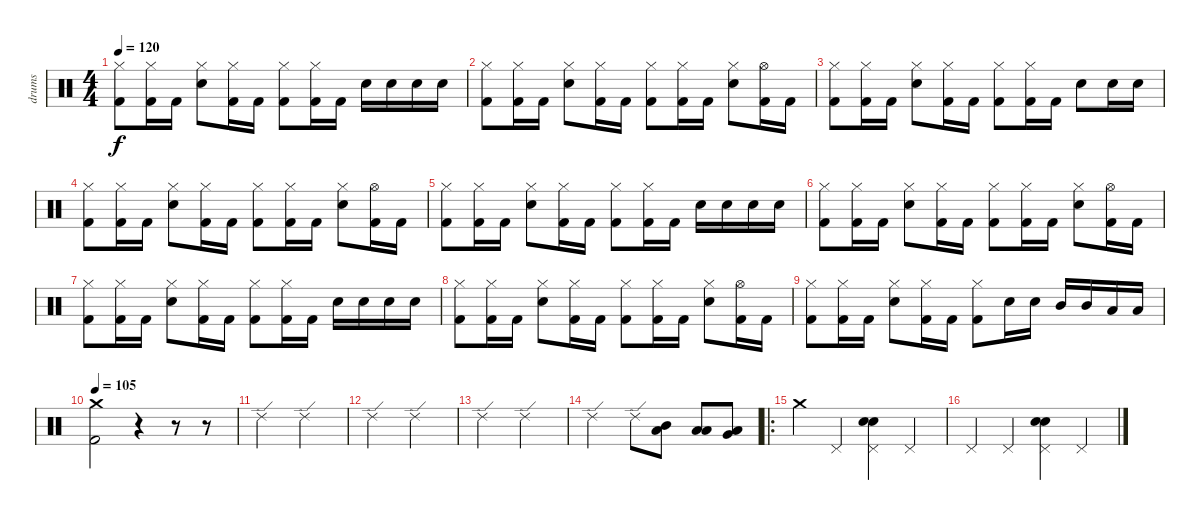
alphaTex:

\track ("drums" "drums") {instrument percussion}
\staff {score}
\articulation defaults
\ts (4 4)
\tempo 120
\clef neutral
\ks c
("Hi-Hat (closed)" "Kick (hit) 2").8{dy f} ("Hi-Hat (closed)" "Kick (hit) 2").16 "Kick (hit) 2".16 ("Hi-Hat (closed)" "Snare (hit) 2").8 ("Hi-Hat (closed)" "Kick (hit) 2").16 "Kick (hit) 2".16 ("Hi-Hat (closed)" "Kick (hit) 2").8 ("Hi-Hat (closed)" "Kick (hit) 2").16 "Kick (hit) 2".16 "Snare (hit) 2".16 "Snare (hit) 2".16 "Snare (hit) 2".16 "Snare (hit) 2".16 |
("Hi-Hat (closed)" "Kick (hit) 2").8 ("Hi-Hat (closed)" "Kick (hit) 2").16 "Kick (hit) 2".16 ("Hi-Hat (closed)" "Snare (hit) 2").8 ("Hi-Hat (closed)" "Kick (hit) 2").16 "Kick (hit) 2".16 ("Hi-Hat (closed)" "Kick (hit) 2").8 ("Hi-Hat (closed)" "Kick (hit) 2").16 "Kick (hit) 2".16 ("Hi-Hat (closed)" "Snare (hit) 2").8 ("Hi-Hat (open)" "Kick (hit) 2").16 "Kick (hit) 2".16 |
("Hi-Hat (closed)" "Kick (hit) 2").8 ("Hi-Hat (closed)" "Kick (hit) 2").16 "Kick (hit) 2".16 ("Hi-Hat (closed)" "Snare (hit) 2").8 ("Hi-Hat (closed)" "Kick (hit) 2").16 "Kick (hit) 2".16 ("Hi-Hat (closed)" "Kick (hit) 2").8 ("Hi-Hat (closed)" "Kick (hit) 2").16 "Kick (hit) 2".16 "Snare (hit) 2".8 "Snare (hit) 2".16 "Snare (hit) 2".16 |
("Hi-Hat (closed)" "Kick (hit) 2").8 ("Hi-Hat (closed)" "Kick (hit) 2").16 "Kick (hit) 2".16 ("Hi-Hat (closed)" "Snare (hit) 2").8 ("Hi-Hat (closed)" "Kick (hit) 2").16 "Kick (hit) 2".16 ("Hi-Hat (closed)" "Kick (hit) 2").8 ("Hi-Hat (closed)" "Kick (hit) 2").16 "Kick (hit) 2".16 ("Hi-Hat (closed)" "Snare (hit) 2").8 ("Hi-Hat (open)" "Kick (hit) 2").16 "Kick (hit) 2".16 |
("Hi-Hat (closed)" "Kick (hit) 2").8 ("Hi-Hat (closed)" "Kick (hit) 2").16 "Kick (hit) 2".16 ("Hi-Hat (closed)" "Snare (hit) 2").8 ("Hi-Hat (closed)" "Kick (hit) 2").16 "Kick (hit) 2".16 ("Hi-Hat (closed)" "Kick (hit) 2").8 ("Hi-Hat (closed)" "Kick (hit) 2").16 "Kick (hit) 2".16 "Snare (hit) 2".16 "Snare (hit) 2".16 "Snare (hit) 2".16 "Snare (hit) 2".16 |
("Hi-Hat (closed)" "Kick (hit) 2").8 ("Hi-Hat (closed)" "Kick (hit) 2").16 "Kick (hit) 2".16 ("Hi-Hat (closed)" "Snare (hit) 2").8 ("Hi-Hat (closed)" "Kick (hit) 2").16 "Kick (hit) 2".16 ("Hi-Hat (closed)" "Kick (hit) 2").8 ("Hi-Hat (closed)" "Kick (hit) 2").16 "Kick (hit) 2".16 ("Hi-Hat (closed)" "Snare (hit) 2").8 ("Hi-Hat (open)" "Kick (hit) 2").16 "Kick (hit) 2".16 |
("Hi-Hat (closed)" "Kick (hit) 2").8 ("Hi-Hat (closed)" "Kick (hit) 2").16 "Kick (hit) 2".16 ("Hi-Hat (closed)" "Snare (hit) 2").8 ("Hi-Hat (closed)" "Kick (hit) 2").16 "Kick (hit) 2".16 ("Hi-Hat (closed)" "Kick (hit) 2").8 ("Hi-Hat (closed)" "Kick (hit) 2").16 "Kick (hit) 2".16 "Snare (hit) 2".16 "Snare (hit) 2".16 "Snare (hit) 2".16 "Snare (hit) 2".16 |
("Hi-Hat (closed)" "Kick (hit) 2").8 ("Hi-Hat (closed)" "Kick (hit) 2").16 "Kick (hit) 2".16 ("Hi-Hat (closed)" "Snare (hit) 2").8 ("Hi-Hat (closed)" "Kick (hit) 2").16 "Kick (hit) 2".16 ("Hi-Hat (closed)" "Kick (hit) 2").8 ("Hi-Hat (closed)" "Kick (hit) 2").16 "Kick (hit) 2".16 ("Hi-Hat (closed)" "Snare (hit) 2").8 ("Hi-Hat (open)" "Kick (hit) 2").16 "Kick (hit) 2".16 |
("Hi-Hat (closed)" "Kick (hit) 2").8 ("Hi-Hat (closed)" "Kick (hit) 2").16 "Kick (hit) 2".16 ("Hi-Hat (closed)" "Snare (hit) 2").8 ("Hi-Hat (closed)" "Kick (hit) 2").16 "Kick (hit) 2".16 ("Hi-Hat (closed)" "Kick (hit) 2").8 "Snare (hit) 2".16 "Snare (hit) 2".16 "Mid Tom (hit)".16 "Mid Tom (hit)".16 "Low Tom (hit)".16 "Low Tom (hit)".16 |
\tempo 105
("Crash medium (hit)" "Kick (hit) 2").2 r.4 r.8 r.8 |
"Ride (edge) 2".2 "Ride (edge) 2".2 |
"Ride (edge) 2".2 "Ride (edge) 2".2 |
"Ride (edge) 2".2 "Ride (edge) 2".2 |
"Ride (edge) 2".2 "Ride (edge) 2".8 ("Low Tom (hit)" "Mid Tom (hit)").8 ("Low Floor Tom (hit)" "Low Tom (hit)").8 ("Very Low Tom (hit)" "Low Floor Tom (hit)").8 |
\ro "Crash medium (hit)".4 "Pedal Hi-Hat (hit)".4
("Pedal Hi-Hat (hit)" "Snare (hit) 2" "Electric Snare (hit)").4 "Pedal Hi-Hat (hit)".4 |
"Pedal Hi-Hat (hit)".4 "Pedal Hi-Hat (hit)".4 ("Pedal Hi-Hat (hit)" "Snare (hit) 2" "Electric Snare (hit)").4 "Pedal Hi-Hat (hit)".4
